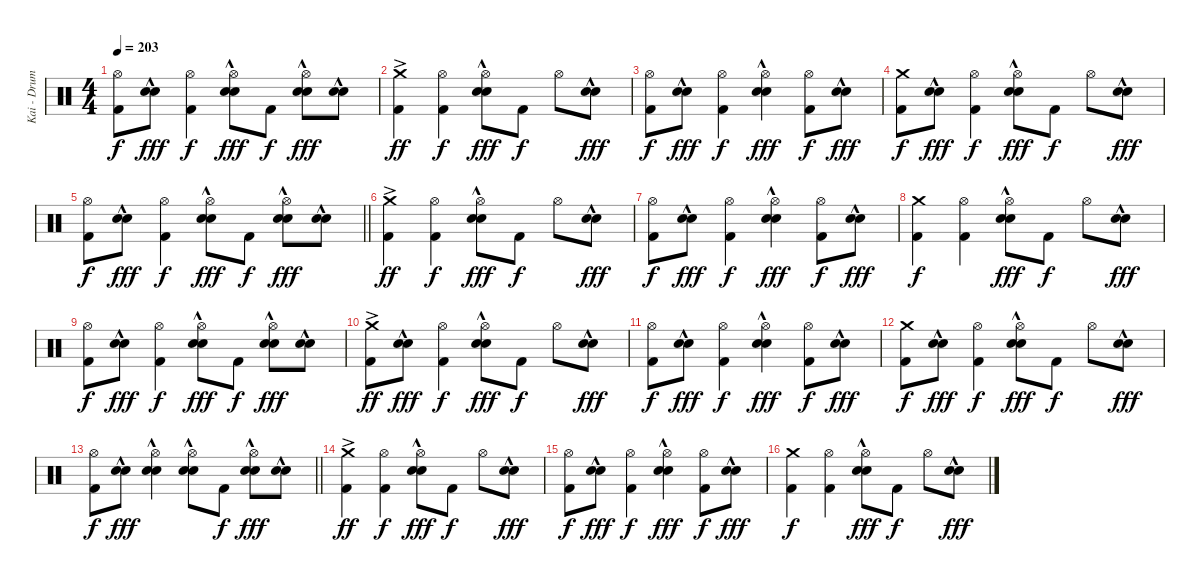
\track ("Kai - Drums" "Kai - Drum") {instrument percussion}
\staff {score}
\articulation defaults
\ts (4 4)
\tempo 203
\clef neutral
\ks c
("Hi-Hat (open)" "Kick (hit) 2").8{dy f} ("Electric Snare (hit)"{hac} "Snare (hit) 2"{hac}).8{dy fff} ("Hi-Hat (open)" "Kick (hit) 2").4{dy f} ("Hi-Hat (open)" "Electric Snare (hit)"{hac} "Snare (hit) 2"{hac}).8{dy fff} "Kick (hit) 2".8{dy f} ("Hi-Hat (open)" "Electric Snare (hit)"{hac} "Snare (hit) 2"{hac}).8{dy fff} ("Electric Snare (hit)"{hac} "Snare (hit) 2"{hac}).8 |
("Crash medium (hit)"{ac} "Kick (hit) 2").4{dy ff} ("Hi-Hat (open)" "Kick (hit) 2").4{dy f} ("Hi-Hat (open)" "Electric Snare (hit)"{hac} "Snare (hit) 2"{hac}).8{dy fff} "Kick (hit) 2".8{dy f} "Hi-Hat (open)".8 ("Electric Snare (hit)"{hac} "Snare (hit) 2"{hac}).8{dy fff} |
("Hi-Hat (open)" "Kick (hit) 2").8{dy f} ("Electric Snare (hit)"{hac} "Snare (hit) 2"{hac}).8{dy fff} ("Hi-Hat (open)" "Kick (hit) 2").4{dy f} ("Hi-Hat (open)" "Electric Snare (hit)"{hac} "Snare (hit) 2"{hac}).4{dy fff} ("Hi-Hat (open)" "Kick (hit) 2").8{dy f} ("Electric Snare (hit)"{hac} "Snare (hit) 2"{hac}).8{dy fff} |
("Crash medium (hit)" "Kick (hit) 2").8{dy f} ("Electric Snare (hit)"{hac} "Snare (hit) 2"{hac}).8{dy fff} ("Hi-Hat (open)" "Kick (hit) 2").4{dy f} ("Hi-Hat (open)" "Electric Snare (hit)"{hac} "Snare (hit) 2"{hac}).8{dy fff} "Kick (hit) 2".8{dy f} "Hi-Hat (open)".8 ("Electric Snare (hit)"{hac} "Snare (hit) 2"{hac}).8{dy fff} |
\barLineRight lightlight
("Hi-Hat (open)" "Kick (hit) 2").8{dy f} ("Electric Snare (hit)"{hac} "Snare (hit) 2"{hac}).8{dy fff} ("Hi-Hat (open)" "Kick (hit) 2").4{dy f} ("Hi-Hat (open)" "Electric Snare (hit)"{hac} "Snare (hit) 2"{hac}).8{dy fff} "Kick (hit) 2".8{dy f} ("Hi-Hat (open)" "Electric Snare (hit)"{hac} "Snare (hit) 2"{hac}).8{dy fff} ("Electric Snare (hit)"{hac} "Snare (hit) 2"{hac}).8 |
\section ("" "")
("Crash medium (hit)"{ac} "Kick (hit) 2").4{dy ff} ("Hi-Hat (open)" "Kick (hit) 2").4{dy f} ("Hi-Hat (open)" "Electric Snare (hit)"{hac} "Snare (hit) 2"{hac}).8{dy fff} "Kick (hit) 2".8{dy f} "Hi-Hat (open)".8 ("Electric Snare (hit)"{hac} "Snare (hit) 2"{hac}).8{dy fff} |
("Hi-Hat (open)" "Kick (hit) 2").8{dy f} ("Electric Snare (hit)"{hac} "Snare (hit) 2"{hac}).8{dy fff} ("Hi-Hat (open)" "Kick (hit) 2").4{dy f} ("Hi-Hat (open)" "Electric Snare (hit)"{hac} "Snare (hit) 2"{hac}).4{dy fff} ("Hi-Hat (open)" "Kick (hit) 2").8{dy f} ("Electric Snare (hit)"{hac} "Snare (hit) 2"{hac}).8{dy fff} |
("Crash medium (hit)" "Kick (hit) 2").4{dy f} ("Hi-Hat (open)" "Kick (hit) 2").4 ("Hi-Hat (open)" "Electric Snare (hit)"{hac} "Snare (hit) 2"{hac}).8{dy fff} "Kick (hit) 2".8{dy f} "Hi-Hat (open)".8 ("Electric Snare (hit)"{hac} "Snare (hit) 2"{hac}).8{dy fff} |
("Hi-Hat (open)" "Kick (hit) 2").8{dy f} ("Electric Snare (hit)"{hac} "Snare (hit) 2"{hac}).8{dy fff} ("Hi-Hat (open)" "Kick (hit) 2").4{dy f} ("Hi-Hat (open)" "Electric Snare (hit)"{hac} "Snare (hit) 2"{hac}).8{dy fff} "Kick (hit) 2".8{dy f} ("Hi-Hat (open)" "Electric Snare (hit)"{hac} "Snare (hit) 2"{hac}).8{dy fff} ("Electric Snare (hit)"{hac} "Snare (hit) 2"{hac}).8 |
("Crash medium (hit)"{ac} "Kick (hit) 2").8{dy ff} ("Electric Snare (hit)"{hac} "Snare (hit) 2"{hac}).8{dy fff} ("Hi-Hat (open)" "Kick (hit) 2").4{dy f} ("Hi-Hat (open)" "Electric Snare (hit)"{hac} "Snare (hit) 2"{hac}).8{dy fff} "Kick (hit) 2".8{dy f} "Hi-Hat (open)".8 ("Electric Snare (hit)"{hac} "Snare (hit) 2"{hac}).8{dy fff} |
("Hi-Hat (open)" "Kick (hit) 2").8{dy f} ("Electric Snare (hit)"{hac} "Snare (hit) 2"{hac}).8{dy fff} ("Hi-Hat (open)" "Kick (hit) 2").4{dy f} ("Hi-Hat (open)" "Electric Snare (hit)"{hac} "Snare (hit) 2"{hac}).4{dy fff} ("Hi-Hat (open)" "Kick (hit) 2").8{dy f} ("Electric Snare (hit)"{hac} "Snare (hit) 2"{hac}).8{dy fff} |
("Crash medium (hit)" "Kick (hit) 2").8{dy f} ("Electric Snare (hit)"{hac} "Snare (hit) 2"{hac}).8{dy fff} ("Hi-Hat (open)" "Kick (hit) 2").4{dy f} ("Hi-Hat (open)" "Electric Snare (hit)"{hac} "Snare (hit) 2"{hac}).8{dy fff} "Kick (hit) 2".8{dy f} "Hi-Hat (open)".8 ("Electric Snare (hit)"{hac} "Snare (hit) 2"{hac}).8{dy fff} |
\barLineRight lightlight
("Hi-Hat (open)" "Kick (hit) 2").8{dy f} ("Electric Snare (hit)"{hac} "Snare (hit) 2"{hac}).8{dy fff} ("Hi-Hat (open)" "Electric Snare (hit)"{hac} "Snare (hit) 2"{hac}).4 ("Hi-Hat (open)" "Electric Snare (hit)"{hac} "Snare (hit) 2"{hac}).8 "Kick (hit) 2".8{dy f} ("Hi-Hat (open)" "Electric Snare (hit)"{hac} "Snare (hit) 2"{hac}).8{dy fff} ("Electric Snare (hit)"{hac} "Snare (hit) 2"{hac}).8 |
\section ("" "")
("Crash medium (hit)"{ac} "Kick (hit) 2").4{dy ff} ("Hi-Hat (open)" "Kick (hit) 2").4{dy f} ("Hi-Hat (open)" "Electric Snare (hit)"{hac} "Snare (hit) 2"{hac}).8{dy fff} "Kick (hit) 2".8{dy f} "Hi-Hat (open)".8 ("Electric Snare (hit)"{hac} "Snare (hit) 2"{hac}).8{dy fff} |
("Hi-Hat (open)" "Kick (hit) 2").8{dy f} ("Electric Snare (hit)"{hac} "Snare (hit) 2"{hac}).8{dy fff} ("Hi-Hat (open)" "Kick (hit) 2").4{dy f} ("Hi-Hat (open)" "Electric Snare (hit)"{hac} "Snare (hit) 2"{hac}).4{dy fff} ("Hi-Hat (open)" "Kick (hit) 2").8{dy f} ("Electric Snare (hit)"{hac} "Snare (hit) 2"{hac}).8{dy fff} |
("Crash medium (hit)" "Kick (hit) 2").4{dy f} ("Hi-Hat (open)" "Kick (hit) 2").4 ("Hi-Hat (open)" "Electric Snare (hit)"{hac} "Snare (hit) 2"{hac}).8{dy fff} "Kick (hit) 2".8{dy f} "Hi-Hat (open)".8 ("Electric Snare (hit)"{hac} "Snare (hit) 2"{hac}).8{dy fff}
